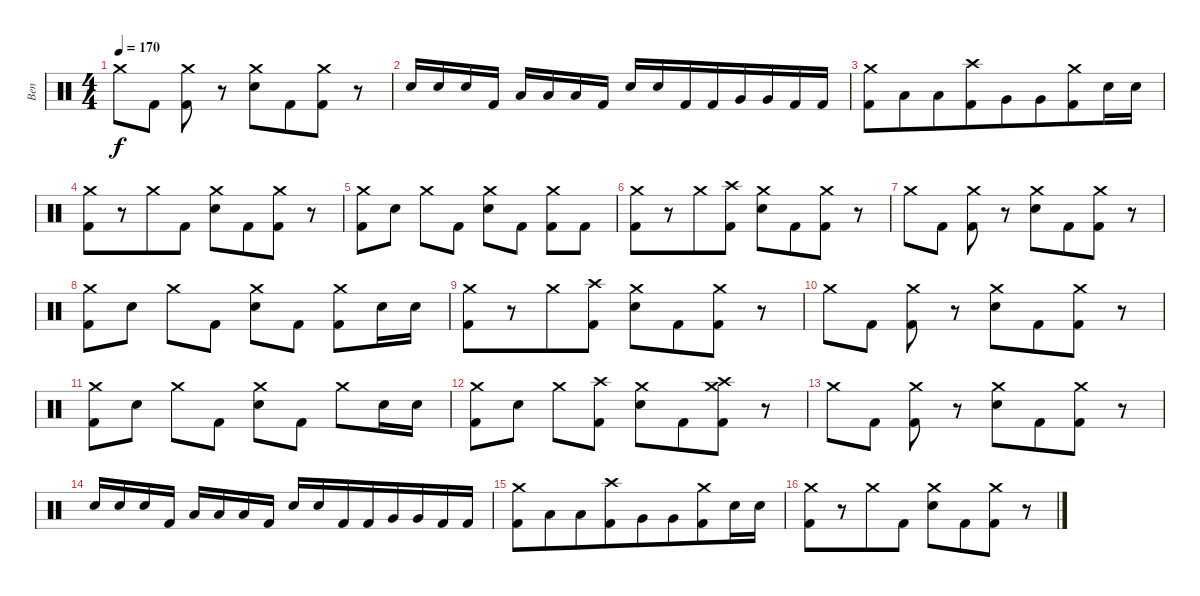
\track ("Ben" "Ben") {instrument percussion}
\staff {score}
\articulation defaults
\ts (4 4)
\tempo 170
\clef neutral
\ks c "Crash medium (hit)".8{dy f beam merge} "Kick (hit) 2".8
("Crash medium (hit)" "Kick (hit) 2").8 r.8 ("Crash medium (hit)" "Electric Snare (hit)").8{beam merge} "Kick (hit) 2".8{beam merge} ("Crash medium (hit)" "Kick (hit) 2").8{beam merge} r.8 |
"Electric Snare (hit)".16{beam merge} "Electric Snare (hit)".16{beam merge} "Electric Snare (hit)".16{beam merge} "Kick (hit) 2".16 "Low Tom (hit)".16 "Low Tom (hit)".16{beam merge} "Low Tom (hit)".16{beam merge} "Kick (hit) 2".16 "Electric Snare (hit)".16{beam merge} "Electric Snare (hit)".16{beam merge} "Kick (hit) 2".16{beam merge} "Kick (hit) 2".16{beam merge} "Very Low Tom (hit)".16{beam merge} "Very Low Tom (hit)".16{beam merge} "Kick (hit) 2".16{beam merge} "Kick (hit) 2".16 |
("Crash medium (hit)" "Kick (hit) 2").8 "Low Floor Tom (hit)".8{beam merge} "Low Floor Tom (hit)".8{beam merge} ("Crash high (hit)" "Kick (hit) 2").8{beam merge} "Very Low Tom (hit)".8 "Very Low Tom (hit)".8{beam merge} ("Kick (hit) 2" "Crash medium (hit)").8 "Electric Snare (hit)".16{beam merge} "Electric Snare (hit)".16 |
("Crash medium (hit)" "Kick (hit) 2").8{beam merge} r.8 "Crash medium (hit)".8 "Kick (hit) 2".8 ("Crash medium (hit)" "Electric Snare (hit)").8{beam merge} "Kick (hit) 2".8{beam merge} ("Crash medium (hit)" "Kick (hit) 2").8{beam merge} r.8 |
("Crash medium (hit)" "Kick (hit) 2").8 "Electric Snare (hit)".8 "Crash medium (hit)".8{beam merge} "Kick (hit) 2".8 ("Crash medium (hit)" "Electric Snare (hit)").8 "Kick (hit) 2".8 ("Crash medium (hit)" "Kick (hit) 2").8 "Kick (hit) 2".8 |
("Crash medium (hit)" "Kick (hit) 2").8{beam merge} r.8 "Crash medium (hit)".8 ("Crash high (hit)" "Kick (hit) 2").8 ("Crash medium (hit)" "Electric Snare (hit)").8{beam merge} "Kick (hit) 2".8{beam merge} ("Crash medium (hit)" "Kick (hit) 2").8{beam merge} r.8 |
"Crash medium (hit)".8{beam merge} "Kick (hit) 2".8 ("Crash medium (hit)" "Kick (hit) 2").8 r.8 ("Crash medium (hit)" "Electric Snare (hit)").8{beam merge} "Kick (hit) 2".8{beam merge} ("Crash medium (hit)" "Kick (hit) 2").8{beam merge} r.8 |
("Crash medium (hit)" "Kick (hit) 2").8 "Electric Snare (hit)".8 "Crash medium (hit)".8{beam merge} "Kick (hit) 2".8 ("Crash medium (hit)" "Electric Snare (hit)").8 "Kick (hit) 2".8 ("Crash medium (hit)" "Kick (hit) 2").8 "Electric Snare (hit)".16{beam merge} "Electric Snare (hit)".16 |
("Crash medium (hit)" "Kick (hit) 2").8{beam merge} r.8 "Crash medium (hit)".8 ("Crash high (hit)" "Kick (hit) 2").8 ("Crash medium (hit)" "Electric Snare (hit)").8{beam merge} "Kick (hit) 2".8{beam merge} ("Crash medium (hit)" "Kick (hit) 2").8{beam merge} r.8 |
"Crash medium (hit)".8{beam merge} "Kick (hit) 2".8 ("Crash medium (hit)" "Kick (hit) 2").8 r.8 ("Crash medium (hit)" "Electric Snare (hit)").8{beam merge} "Kick (hit) 2".8{beam merge} ("Crash medium (hit)" "Kick (hit) 2").8{beam merge} r.8 |
("Crash medium (hit)" "Kick (hit) 2").8 "Electric Snare (hit)".8 "Crash medium (hit)".8{beam merge} "Kick (hit) 2".8 ("Crash medium (hit)" "Electric Snare (hit)").8 "Kick (hit) 2".8 "Crash medium (hit)".8 "Electric Snare (hit)".16{beam merge} "Electric Snare (hit)".16 |
("Crash medium (hit)" "Kick (hit) 2").8{beam merge} "Electric Snare (hit)".8 "Crash medium (hit)".8 ("Crash high (hit)" "Kick (hit) 2").8 ("Crash medium (hit)" "Electric Snare (hit)").8{beam merge} "Kick (hit) 2".8{beam merge} ("Crash high (hit)" "Crash medium (hit)" "Kick (hit) 2").8{beam merge} r.8 |
"Crash medium (hit)".8{beam merge} "Kick (hit) 2".8 ("Crash medium (hit)" "Kick (hit) 2").8 r.8 ("Crash medium (hit)" "Electric Snare (hit)").8{beam merge} "Kick (hit) 2".8{beam merge} ("Crash medium (hit)" "Kick (hit) 2").8{beam merge} r.8 |
"Electric Snare (hit)".16{beam merge} "Electric Snare (hit)".16{beam merge} "Electric Snare (hit)".16{beam merge} "Kick (hit) 2".16 "Low Tom (hit)".16 "Low Tom (hit)".16{beam merge} "Low Tom (hit)".16{beam merge} "Kick (hit) 2".16 "Electric Snare (hit)".16{beam merge} "Electric Snare (hit)".16{beam merge} "Kick (hit) 2".16{beam merge} "Kick (hit) 2".16{beam merge} "Very Low Tom (hit)".16{beam merge} "Very Low Tom (hit)".16{beam merge} "Kick (hit) 2".16{beam merge} "Kick (hit) 2".16 |
("Crash medium (hit)" "Kick (hit) 2").8 "Low Floor Tom (hit)".8{beam merge} "Low Floor Tom (hit)".8{beam merge} ("Crash high (hit)" "Kick (hit) 2").8{beam merge} "Very Low Tom (hit)".8 "Very Low Tom (hit)".8{beam merge} ("Kick (hit) 2" "Crash medium (hit)").8 "Electric Snare (hit)".16{beam merge} "Electric Snare (hit)".16 |
("Crash medium (hit)" "Kick (hit) 2").8{beam merge} r.8 "Crash medium (hit)".8 "Kick (hit) 2".8 ("Crash medium (hit)" "Electric Snare (hit)").8{beam merge} "Kick (hit) 2".8{beam merge} ("Crash medium (hit)" "Kick (hit) 2").8{beam merge} r.8
